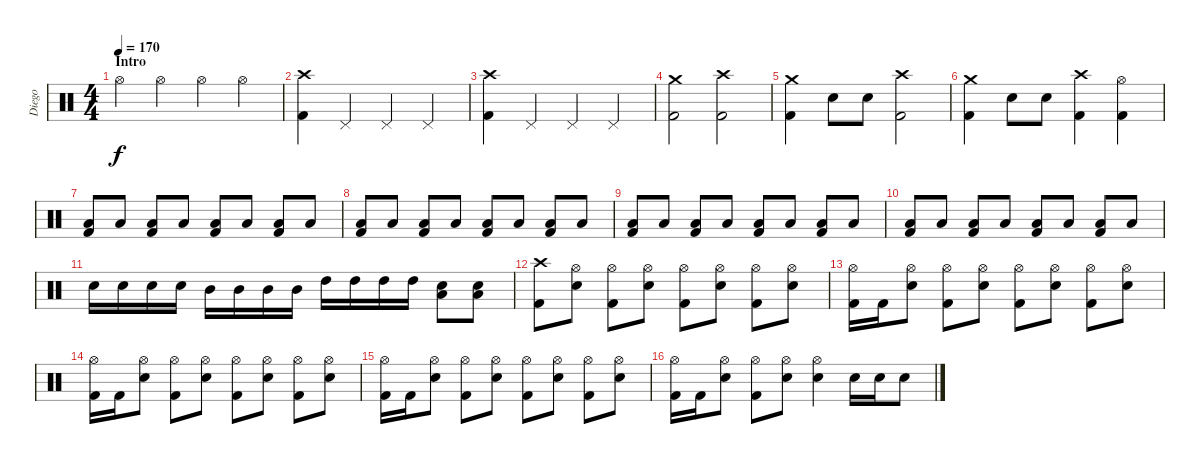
\track ("Diego" "Diego") {instrument percussion}
\staff {score}
\articulation defaults
\ts (4 4)
\section ("" "Intro")
\tempo 170
\clef neutral
\ks c "Hi-Hat (open)".4{dy f} "Hi-Hat (open)".4 "Hi-Hat (open)".4 "Hi-Hat (open)".4
|
("Crash high (hit)" "Kick (hit) 2").4 "Pedal Hi-Hat (hit)".4 "Pedal Hi-Hat (hit)".4 "Pedal Hi-Hat (hit)".4 |
("Crash high (hit)" "Kick (hit) 2").4 "Pedal Hi-Hat (hit)".4 "Pedal Hi-Hat (hit)".4 "Pedal Hi-Hat (hit)".4 |
("Crash medium (hit)" "Kick (hit) 2").2 ("Crash high (hit)" "Kick (hit) 2").2 |
("Crash medium (hit)" "Kick (hit) 2").4 "Electric Snare (hit)".8 "Electric Snare (hit)".8 ("Crash high (hit)" "Kick (hit) 2").2 |
("Crash medium (hit)" "Kick (hit) 2").4 "Electric Snare (hit)".8 "Electric Snare (hit)".8 ("Crash high (hit)" "Kick (hit) 2").4 ("Hi-Hat (open)" "Kick (hit) 2").4 |
("Low Tom (hit)" "Kick (hit) 2").8 "Low Tom (hit)".8 ("Low Tom (hit)" "Kick (hit) 2").8 "Low Tom (hit)".8 ("Low Tom (hit)" "Kick (hit) 2").8 "Low Tom (hit)".8 ("Low Tom (hit)" "Kick (hit) 2").8 "Low Tom (hit)".8 |
("Low Tom (hit)" "Kick (hit) 2").8 "Low Tom (hit)".8 ("Low Tom (hit)" "Kick (hit) 2").8 "Low Tom (hit)".8 ("Low Tom (hit)" "Kick (hit) 2").8 "Low Tom (hit)".8 ("Low Tom (hit)" "Kick (hit) 2").8 "Low Tom (hit)".8 |
("Low Tom (hit)" "Kick (hit) 2").8 "Low Tom (hit)".8 ("Low Tom (hit)" "Kick (hit) 2").8 "Low Tom (hit)".8 ("Low Tom (hit)" "Kick (hit) 2").8 "Low Tom (hit)".8 ("Low Tom (hit)" "Kick (hit) 2").8 "Low Tom (hit)".8 |
("Low Tom (hit)" "Kick (hit) 2").8 "Low Tom (hit)".8 ("Low Tom (hit)" "Kick (hit) 2").8 "Low Tom (hit)".8 ("Low Tom (hit)" "Kick (hit) 2").8 "Low Tom (hit)".8 ("Low Tom (hit)" "Kick (hit) 2").8 "Low Tom (hit)".8 |
"Electric Snare (hit)".16 "Electric Snare (hit)".16 "Electric Snare (hit)".16 "Electric Snare (hit)".16 "Mid Tom (hit)".16 "Mid Tom (hit)".16 "Mid Tom (hit)".16 "Mid Tom (hit)".16 "High Tom (hit)".16 "High Tom (hit)".16 "High Tom (hit)".16 "High Tom (hit)".16 ("Low Tom (hit)" "Electric Snare (hit)").8 ("Low Tom (hit)" "Electric Snare (hit)").8 |
("Crash high (hit)" "Kick (hit) 2").8 ("Hi-Hat (open)" "Electric Snare (hit)").8 ("Hi-Hat (open)" "Kick (hit) 2").8 ("Hi-Hat (open)" "Electric Snare (hit)").8 ("Hi-Hat (open)" "Kick (hit) 2").8 ("Hi-Hat (open)" "Electric Snare (hit)").8 ("Hi-Hat (open)" "Kick (hit) 2").8 ("Hi-Hat (open)" "Electric Snare (hit)").8 |
("Hi-Hat (open)" "Kick (hit) 2").16 "Kick (hit) 2".16 ("Hi-Hat (open)" "Electric Snare (hit)").8 ("Hi-Hat (open)" "Kick (hit) 2").8 ("Hi-Hat (open)" "Electric Snare (hit)").8 ("Hi-Hat (open)" "Kick (hit) 2").8 ("Hi-Hat (open)" "Electric Snare (hit)").8 ("Hi-Hat (open)" "Kick (hit) 2").8 ("Hi-Hat (open)" "Electric Snare (hit)").8 |
("Hi-Hat (open)" "Kick (hit) 2").16 "Kick (hit) 2".16 ("Hi-Hat (open)" "Electric Snare (hit)").8 ("Hi-Hat (open)" "Kick (hit) 2").8 ("Hi-Hat (open)" "Electric Snare (hit)").8 ("Hi-Hat (open)" "Kick (hit) 2").8 ("Hi-Hat (open)" "Electric Snare (hit)").8 ("Hi-Hat (open)" "Kick (hit) 2").8 ("Hi-Hat (open)" "Electric Snare (hit)").8 |
("Hi-Hat (open)" "Kick (hit) 2").16 "Kick (hit) 2".16 ("Hi-Hat (open)" "Electric Snare (hit)").8 ("Hi-Hat (open)" "Kick (hit) 2").8 ("Hi-Hat (open)" "Electric Snare (hit)").8 ("Hi-Hat (open)" "Kick (hit) 2").8 ("Hi-Hat (open)" "Electric Snare (hit)").8 ("Hi-Hat (open)" "Kick (hit) 2").8 ("Hi-Hat (open)" "Electric Snare (hit)").8 |
("Hi-Hat (open)" "Kick (hit) 2").16 "Kick (hit) 2".16 ("Hi-Hat (open)" "Electric Snare (hit)").8 ("Hi-Hat (open)" "Kick (hit) 2").8 ("Hi-Hat (open)" "Electric Snare (hit)").8 ("Hi-Hat (open)" "Electric Snare (hit)").4 "Electric Snare (hit)".16 "Electric Snare (hit)".16 "Electric Snare (hit)".8
